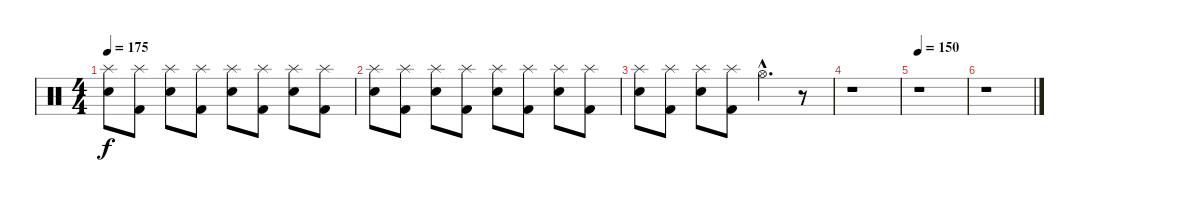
\track "" {instrument percussion}
\staff {score}
\articulation defaults
\ts (4 4)
\tempo 175
\clef neutral
\ks c
("Splash (hit)" "Electric Snare (hit)").8{dy f} ("Splash (hit)" "Kick (hit) 2").8 ("Splash (hit)" "Electric Snare (hit)").8 ("Splash (hit)" "Kick (hit) 2").8 ("Splash (hit)" "Electric Snare (hit)").8 ("Splash (hit)" "Kick (hit) 2").8 ("Splash (hit)" "Electric Snare (hit)").8 ("Splash (hit)" "Kick (hit) 2").8 |
("Splash (hit)" "Electric Snare (hit)").8 ("Splash (hit)" "Kick (hit) 2").8 ("Splash (hit)" "Electric Snare (hit)").8 ("Splash (hit)" "Kick (hit) 2").8 ("Splash (hit)" "Electric Snare (hit)").8 ("Splash (hit)" "Kick (hit) 2").8 ("Splash (hit)" "Electric Snare (hit)").8 ("Splash (hit)" "Kick (hit) 2").8 |
("Splash (hit)" "Electric Snare (hit)").8 ("Splash (hit)" "Kick (hit) 2").8 ("Splash (hit)" "Electric Snare (hit)").8 ("Splash (hit)" "Kick (hit) 2").8 "Hi-Hat (open)"{hac}.4{d} r.8 |
r.1 |
\tempo 150
r.1 |
r.1
